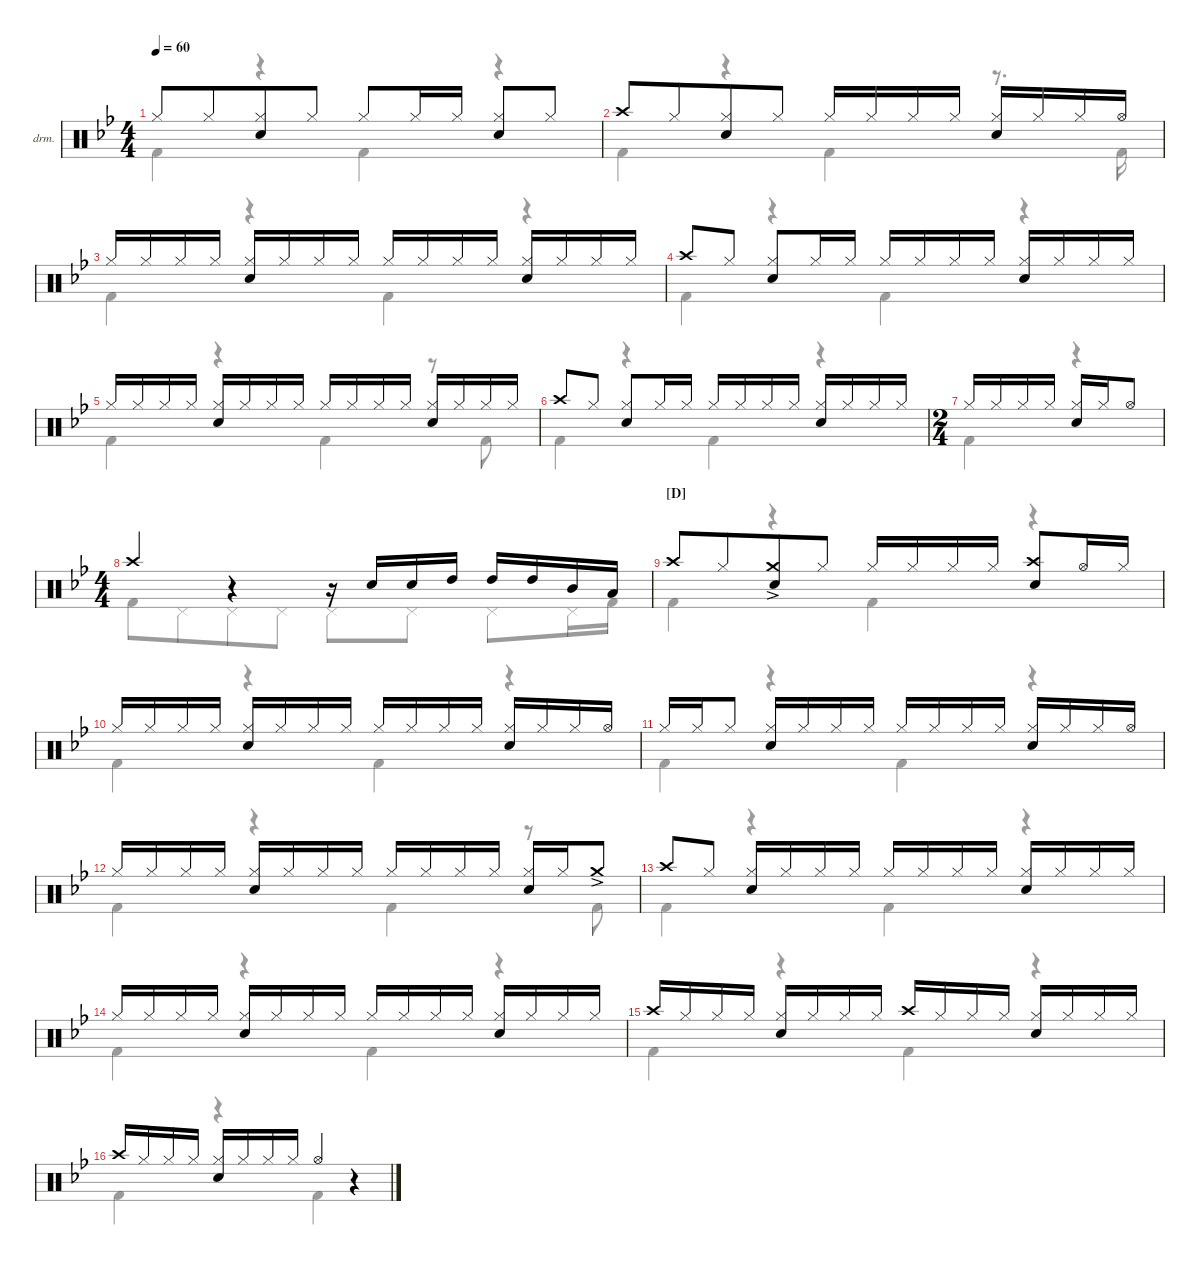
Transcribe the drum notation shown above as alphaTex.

\defaultSystemsLayout 4
\hideDynamics
\bracketExtendMode nobrackets
\firstSystemTrackNameOrientation horizontal
\otherSystemsTrackNameOrientation horizontal
\track ("Drumkit" "drm.") {instrument percussion}
\staff {score}
\articulation defaults
\voice
\ts (4 4)
\tempo 60
\clef neutral
\ks bb "Hi-Hat (closed)"{acc forcenatural}.8{dy mf beam Up} "Hi-Hat (closed)"{acc forcenatural}.8{dy mp beam Up beam merge}
("Hi-Hat (closed)"{acc forcenatural} "Snare (hit) 2"{acc forcenatural}).8{dy mf beam Up} "Hi-Hat (closed)"{acc forcenatural}.8{dy mp beam Up} "Hi-Hat (closed)"{acc forcenatural}.8{dy mf beam Up} "Hi-Hat (closed)"{acc forcenatural}.16{beam Up} "Hi-Hat (closed)"{acc forcenatural}.16{dy mp beam Up} ("Hi-Hat (closed)"{acc forcenatural} "Snare (hit) 2"{acc forcenatural}).8{dy mf beam Up} "Hi-Hat (closed)"{acc forcenatural}.8{beam Up} |
"Crash high (hit)"{acc forcenatural}.8{beam Up} "Hi-Hat (closed)"{acc forcenatural}.8{beam Up beam merge} ("Snare (hit) 2"{acc forcenatural} "Hi-Hat (closed)"{acc forcenatural}).8{beam Up} "Hi-Hat (closed)"{acc forcenatural}.8{beam Up} "Hi-Hat (closed)"{acc forcenatural}.16{beam Up} "Hi-Hat (closed)"{acc forcenatural}.16{dy mp beam Up} "Hi-Hat (closed)"{acc forcenatural}.16{dy mf beam Up} "Hi-Hat (closed)"{acc forcenatural}.16{dy mp beam Up} ("Hi-Hat (closed)"{acc forcenatural} "Snare (hit) 2"{acc forcenatural}).16{dy mf beam Up} "Hi-Hat (closed)"{acc forcenatural}.16{dy mp beam Up} "Hi-Hat (closed)"{acc forcenatural}.16{dy mf beam Up} "Hi-Hat (open)"{acc forcenatural}.16{beam Up} |
"Hi-Hat (closed)"{acc forcenatural}.16{beam Up} "Hi-Hat (closed)"{acc forcenatural}.16{dy mp beam Up} "Hi-Hat (closed)"{acc forcenatural}.16{dy mf beam Up} "Hi-Hat (closed)"{acc forcenatural}.16{dy mp beam Up} ("Hi-Hat (closed)"{acc forcenatural} "Snare (hit) 2"{acc forcenatural}).16{dy mf beam Up} "Hi-Hat (closed)"{acc forcenatural}.16{dy mp beam Up} "Hi-Hat (closed)"{acc forcenatural}.16{dy mf beam Up} "Hi-Hat (closed)"{acc forcenatural}.16{dy mp beam Up} "Hi-Hat (closed)"{acc forcenatural}.16{dy mf beam Up} "Hi-Hat (closed)"{acc forcenatural}.16{dy mp beam Up} "Hi-Hat (closed)"{acc forcenatural}.16{dy mf beam Up} "Hi-Hat (closed)"{acc forcenatural}.16{dy mp beam Up} ("Hi-Hat (closed)"{acc forcenatural} "Snare (hit) 2"{acc forcenatural}).16{dy mf beam Up} "Hi-Hat (closed)"{acc forcenatural}.16{dy mp beam Up} "Hi-Hat (closed)"{acc forcenatural}.16{dy mf beam Up} "Hi-Hat (closed)"{acc forcenatural}.16{dy mp beam Up} |
"Crash high (hit)"{acc forcenatural}.8{beam Up} "Hi-Hat (closed)"{acc forcenatural}.8{dy mf beam Up} ("Hi-Hat (closed)"{acc forcenatural} "Snare (hit) 2"{acc forcenatural}).8{beam Up} "Hi-Hat (closed)"{acc forcenatural}.16{beam Up} "Hi-Hat (closed)"{acc forcenatural}.16{dy mp beam Up} "Hi-Hat (closed)"{acc forcenatural}.16{dy mf beam Up} "Hi-Hat (closed)"{acc forcenatural}.16{dy mp beam Up} "Hi-Hat (closed)"{acc forcenatural}.16{dy mf beam Up} "Hi-Hat (closed)"{acc forcenatural}.16{dy mp beam Up} ("Hi-Hat (closed)"{acc forcenatural} "Snare (hit) 2"{acc forcenatural}).16{dy mf beam Up} "Hi-Hat (closed)"{acc forcenatural}.16{dy mp beam Up} "Hi-Hat (closed)"{acc forcenatural}.16{dy mf beam Up} "Hi-Hat (closed)"{acc forcenatural}.16{dy mp beam Up} |
"Hi-Hat (closed)"{acc forcenatural}.16{dy mf beam Up} "Hi-Hat (closed)"{acc forcenatural}.16{dy mp beam Up} "Hi-Hat (closed)"{acc forcenatural}.16{dy mf beam Up} "Hi-Hat (closed)"{acc forcenatural}.16{dy mp beam Up} ("Hi-Hat (closed)"{acc forcenatural} "Snare (hit) 2"{acc forcenatural}).16{dy mf beam Up} "Hi-Hat (closed)"{acc forcenatural}.16{dy mp beam Up} "Hi-Hat (closed)"{acc forcenatural}.16{dy mf beam Up} "Hi-Hat (closed)"{acc forcenatural}.16{dy mp beam Up} "Hi-Hat (closed)"{acc forcenatural}.16{dy mf beam Up} "Hi-Hat (closed)"{acc forcenatural}.16{dy mp beam Up} "Hi-Hat (closed)"{acc forcenatural}.16{dy mf beam Up} "Hi-Hat (closed)"{acc forcenatural}.16{dy mp beam Up} ("Hi-Hat (closed)"{acc forcenatural} "Snare (hit) 2"{acc forcenatural}).16{dy mf beam Up} "Hi-Hat (closed)"{acc forcenatural}.16{dy mp beam Up} "Hi-Hat (closed)"{acc forcenatural}.16{dy mf beam Up} "Hi-Hat (closed)"{acc forcenatural}.16{dy mp beam Up} |
"Crash high (hit)"{acc forcenatural}.8{beam Up} "Hi-Hat (closed)"{acc forcenatural}.8{dy mf beam Up} ("Hi-Hat (closed)"{acc forcenatural} "Snare (hit) 2"{acc forcenatural}).8{beam Up} "Hi-Hat (closed)"{acc forcenatural}.16{beam Up} "Hi-Hat (closed)"{acc forcenatural}.16{dy mp beam Up} "Hi-Hat (closed)"{acc forcenatural}.16{dy mf beam Up} "Hi-Hat (closed)"{acc forcenatural}.16{dy mp beam Up} "Hi-Hat (closed)"{acc forcenatural}.16{dy mf beam Up} "Hi-Hat (closed)"{acc forcenatural}.16{dy mp beam Up} ("Hi-Hat (closed)"{acc forcenatural} "Snare (hit) 2"{acc forcenatural}).16{dy mf beam Up} "Hi-Hat (closed)"{acc forcenatural}.16{dy mp beam Up} "Hi-Hat (closed)"{acc forcenatural}.16{dy mf beam Up} "Hi-Hat (closed)"{acc forcenatural}.16{dy mp beam Up} |
\ts (2 4)
"Hi-Hat (closed)"{acc forcenatural}.16{dy mf beam Up} "Hi-Hat (closed)"{acc forcenatural}.16{dy mp beam Up} "Hi-Hat (closed)"{acc forcenatural}.16{dy mf beam Up} "Hi-Hat (closed)"{acc forcenatural}.16{dy mp beam Up} ("Hi-Hat (closed)"{acc forcenatural} "Snare (hit) 2"{acc forcenatural}).16{dy mf beam Up} "Hi-Hat (closed)"{acc forcenatural}.16{dy mp beam Up} "Hi-Hat (open)"{acc forcenatural}.8{dy mf beam Up} |
\ts (4 4)
\beaming (8 2 2 2 2)
"Crash high (hit)"{acc forcenatural}.4{beam Up} r.4{beam Up} r.16{beam Up} "Snare (hit) 2"{acc forcenatural}.16{beam Up} "Snare (hit) 2"{acc forcenatural}.16{beam Up} "High Tom (hit)"{acc forcenatural}.16{beam Up} "High Tom (hit)"{acc forcenatural}.16{beam Up} "High Tom (hit)"{acc forcenatural}.16{beam Up} "Mid Tom (hit)"{acc forcenatural}.16{beam Up} "Low Tom (hit)"{acc forcenatural}.16{beam Up} |
\section ("D" "")
"Crash high (hit)"{acc forcenatural}.8{beam Up} "Hi-Hat (closed)"{acc forcenatural}.8{beam Up beam merge} ("Crash medium (hit)"{ac acc forcenatural} "Snare (hit) 2"{acc forcenatural}).8{beam Up} "Hi-Hat (closed)"{acc forcenatural}.8{beam Up} "Hi-Hat (closed)"{acc forcenatural}.16{beam Up} "Hi-Hat (closed)"{acc forcenatural}.16{dy mp beam Up} "Hi-Hat (closed)"{acc forcenatural}.16{dy mf beam Up} "Hi-Hat (closed)"{acc forcenatural}.16{dy mp beam Up} ("Snare (hit) 2"{acc forcenatural} "Crash high (hit)"{acc forcenatural}).8{dy mf beam Up} "Hi-Hat (open)"{acc forcenatural}.16{beam Up} "Hi-Hat (closed)"{acc forcenatural}.16{beam Up} |
"Hi-Hat (closed)"{acc forcenatural}.16{beam Up} "Hi-Hat (closed)"{acc forcenatural}.16{dy mp beam Up} "Hi-Hat (closed)"{acc forcenatural}.16{dy mf beam Up} "Hi-Hat (closed)"{acc forcenatural}.16{dy mp beam Up} ("Hi-Hat (closed)"{acc forcenatural} "Snare (hit) 2"{acc forcenatural}).16{dy mf beam Up} "Hi-Hat (closed)"{acc forcenatural}.16{dy mp beam Up} "Hi-Hat (closed)"{acc forcenatural}.16{dy mf beam Up} "Hi-Hat (closed)"{acc forcenatural}.16{dy mp beam Up} "Hi-Hat (closed)"{acc forcenatural}.16{dy mf beam Up} "Hi-Hat (closed)"{acc forcenatural}.16{dy mp beam Up} "Hi-Hat (closed)"{acc forcenatural}.16{dy mf beam Up} "Hi-Hat (closed)"{acc forcenatural}.16{dy mp beam Up} ("Hi-Hat (closed)"{acc forcenatural} "Snare (hit) 2"{acc forcenatural}).16{dy mf beam Up} "Hi-Hat (closed)"{acc forcenatural}.16{dy mp beam Up} "Hi-Hat (closed)"{acc forcenatural}.16{dy mf beam Up} "Hi-Hat (open)"{acc forcenatural}.16{beam Up} |
"Hi-Hat (closed)"{acc forcenatural}.16{beam Up} "Hi-Hat (closed)"{acc forcenatural}.16{dy mp beam Up} "Hi-Hat (closed)"{acc forcenatural}.8{dy mf beam Up} ("Hi-Hat (closed)"{acc forcenatural} "Snare (hit) 2"{acc forcenatural}).16{beam Up} "Hi-Hat (closed)"{acc forcenatural}.16{dy mp beam Up} "Hi-Hat (closed)"{acc forcenatural}.16{dy mf beam Up} "Hi-Hat (closed)"{acc forcenatural}.16{dy mp beam Up} "Hi-Hat (closed)"{acc forcenatural}.16{dy mf beam Up} "Hi-Hat (closed)"{acc forcenatural}.16{dy mp beam Up} "Hi-Hat (closed)"{acc forcenatural}.16{dy mf beam Up} "Hi-Hat (closed)"{acc forcenatural}.16{dy mp beam Up} ("Hi-Hat (closed)"{acc forcenatural} "Snare (hit) 2"{acc forcenatural}).16{dy mf beam Up} "Hi-Hat (closed)"{acc forcenatural}.16{dy mp beam Up} "Hi-Hat (closed)"{acc forcenatural}.16{dy mf beam Up} "Hi-Hat (open)"{acc forcenatural}.16{beam Up} |
"Hi-Hat (closed)"{acc forcenatural}.16{beam Up} "Hi-Hat (closed)"{acc forcenatural}.16{dy mp beam Up} "Hi-Hat (closed)"{acc forcenatural}.16{dy mf beam Up} "Hi-Hat (closed)"{acc forcenatural}.16{dy mp beam Up} ("Hi-Hat (closed)"{acc forcenatural} "Snare (hit) 2"{acc forcenatural}).16{dy mf beam Up} "Hi-Hat (closed)"{acc forcenatural}.16{dy mp beam Up} "Hi-Hat (closed)"{acc forcenatural}.16{dy mf beam Up} "Hi-Hat (closed)"{acc forcenatural}.16{dy mp beam Up} "Hi-Hat (closed)"{acc forcenatural}.16{dy mf beam Up} "Hi-Hat (closed)"{acc forcenatural}.16{dy mp beam Up} "Hi-Hat (closed)"{acc forcenatural}.16{dy mf beam Up} "Hi-Hat (closed)"{acc forcenatural}.16{dy mp beam Up} ("Hi-Hat (closed)"{acc forcenatural} "Snare (hit) 2"{acc forcenatural}).16{dy mf beam Up} "Hi-Hat (closed)"{acc forcenatural}.16{dy mp beam Up} "Crash medium (hit)"{ac acc forcenatural}.8{dy mf beam Up} |
"Crash high (hit)"{acc forcenatural}.8{beam Up} "Hi-Hat (closed)"{acc forcenatural}.8{beam Up} ("Hi-Hat (closed)"{acc forcenatural} "Snare (hit) 2"{acc forcenatural}).16{beam Up} "Hi-Hat (closed)"{acc forcenatural}.16{dy mp beam Up} "Hi-Hat (closed)"{acc forcenatural}.16{dy mf beam Up} "Hi-Hat (closed)"{acc forcenatural}.16{dy mp beam Up} "Hi-Hat (closed)"{acc forcenatural}.16{dy mf beam Up} "Hi-Hat (closed)"{acc forcenatural}.16{dy mp beam Up} "Hi-Hat (closed)"{acc forcenatural}.16{dy mf beam Up} "Hi-Hat (closed)"{acc forcenatural}.16{dy mp beam Up} ("Hi-Hat (closed)"{acc forcenatural} "Snare (hit) 2"{acc forcenatural}).16{dy mf beam Up} "Hi-Hat (closed)"{acc forcenatural}.16{dy mp beam Up} "Hi-Hat (closed)"{acc forcenatural}.16{dy mf beam Up} "Hi-Hat (closed)"{acc forcenatural}.16{dy mp beam Up} |
"Hi-Hat (closed)"{acc forcenatural}.16{dy mf beam Up} "Hi-Hat (closed)"{acc forcenatural}.16{dy mp beam Up} "Hi-Hat (closed)"{acc forcenatural}.16{dy mf beam Up} "Hi-Hat (closed)"{acc forcenatural}.16{dy mp beam Up} ("Hi-Hat (closed)"{acc forcenatural} "Snare (hit) 2"{acc forcenatural}).16{dy mf beam Up} "Hi-Hat (closed)"{acc forcenatural}.16{dy mp beam Up} "Hi-Hat (closed)"{acc forcenatural}.16{dy mf beam Up} "Hi-Hat (closed)"{acc forcenatural}.16{dy mp beam Up} "Hi-Hat (closed)"{acc forcenatural}.16{dy mf beam Up} "Hi-Hat (closed)"{acc forcenatural}.16{dy mp beam Up} "Hi-Hat (closed)"{acc forcenatural}.16{dy mf beam Up} "Hi-Hat (closed)"{acc forcenatural}.16{dy mp beam Up} ("Hi-Hat (closed)"{acc forcenatural} "Snare (hit) 2"{acc forcenatural}).16{dy mf beam Up} "Hi-Hat (closed)"{acc forcenatural}.16{dy mp beam Up} "Hi-Hat (closed)"{acc forcenatural}.16{dy mf beam Up} "Hi-Hat (closed)"{acc forcenatural}.16{dy mp beam Up} |
"Crash high (hit)"{acc forcenatural}.16{dy mf beam Up} "Hi-Hat (closed)"{acc forcenatural}.16{dy mp beam Up} "Hi-Hat (closed)"{acc forcenatural}.16{dy mf beam Up} "Hi-Hat (closed)"{acc forcenatural}.16{dy mp beam Up} ("Hi-Hat (closed)"{acc forcenatural} "Snare (hit) 2"{acc forcenatural}).16{dy mf beam Up} "Hi-Hat (closed)"{acc forcenatural}.16{dy mp beam Up} "Hi-Hat (closed)"{acc forcenatural}.16{dy mf beam Up} "Hi-Hat (closed)"{acc forcenatural}.16{dy mp beam Up} "Crash high (hit)"{acc forcenatural}.16{dy mf beam Up} "Hi-Hat (closed)"{acc forcenatural}.16{dy mp beam Up} "Hi-Hat (closed)"{acc forcenatural}.16{dy mf beam Up} "Hi-Hat (closed)"{acc forcenatural}.16{dy mp beam Up} ("Hi-Hat (closed)"{acc forcenatural} "Snare (hit) 2"{acc forcenatural}).16{dy mf beam Up} "Hi-Hat (closed)"{acc forcenatural}.16{dy mp beam Up} "Hi-Hat (closed)"{acc forcenatural}.16{dy mf beam Up} "Hi-Hat (closed)"{acc forcenatural}.16{dy mp beam Up} |
"Crash high (hit)"{acc forcenatural}.16{dy mf beam Up} "Hi-Hat (closed)"{acc forcenatural}.16{dy mp beam Up} "Hi-Hat (closed)"{acc forcenatural}.16{dy mf beam Up} "Hi-Hat (closed)"{acc forcenatural}.16{dy mp beam Up} ("Hi-Hat (closed)"{acc forcenatural} "Snare (hit) 2"{acc forcenatural}).16{dy mf beam Up} "Hi-Hat (closed)"{acc forcenatural}.16{dy mp beam Up} "Hi-Hat (closed)"{acc forcenatural}.16{dy mf beam Up} "Hi-Hat (closed)"{acc forcenatural}.16{dy mp beam Up} "Hi-Hat (open)"{acc forcenatural}.4{dy mf beam Up} r.4{beam Up}
\voice
\clef neutral
\ottava regular
\simile none
\ks bb "Kick (hit) 2"{acc forcenatural}.4{dy mf beam Down}
r.4{beam Down} "Kick (hit) 2"{acc forcenatural}.4{beam Down} r.4{beam Down} |
"Kick (hit) 2"{acc forcenatural}.4{beam Down} r.4{beam Down} "Kick (hit) 2"{acc forcenatural}.4{beam Down} r.8{d beam Down} "Kick (hit) 2"{acc forcenatural}.16{beam Down} |
"Kick (hit) 2"{acc forcenatural}.4{beam Down} r.4{beam Down} "Kick (hit) 2"{acc forcenatural}.4{beam Down} r.4{beam Down} |
"Kick (hit) 2"{acc forcenatural}.4{beam Down} r.4{beam Down} "Kick (hit) 2"{acc forcenatural}.4{beam Down} r.4{beam Down} |
"Kick (hit) 2"{acc forcenatural}.4{beam Down} r.4{beam Down} "Kick (hit) 2"{acc forcenatural}.4{beam Down} r.8{beam Down} "Kick (hit) 2"{acc forcenatural}.8{beam Down} |
"Kick (hit) 2"{acc forcenatural}.4{beam Down} r.4{beam Down} "Kick (hit) 2"{acc forcenatural}.4{beam Down} r.4{beam Down} |
"Kick (hit) 2"{acc forcenatural}.4{beam Down} r.4{beam Down} |
"Kick (hit) 2"{acc forcenatural}.8{beam Down} "Pedal Hi-Hat (hit)"{acc forcenatural}.8{beam Down beam merge} "Pedal Hi-Hat (hit)"{acc forcenatural}.8{beam Down} "Pedal Hi-Hat (hit)"{acc forcenatural}.8{beam Down} "Pedal Hi-Hat (hit)"{acc forcenatural}.8{beam Down} "Pedal Hi-Hat (hit)"{acc forcenatural}.8{beam Down} "Pedal Hi-Hat (hit)"{acc forcenatural}.8{beam Down} "Pedal Hi-Hat (hit)"{acc forcenatural}.16{beam Down} "Kick (hit) 2"{acc forcenatural}.16{beam Down} |
"Kick (hit) 2"{acc forcenatural}.4{beam Down} r.4{beam Down} "Kick (hit) 2"{acc forcenatural}.4{beam Down} r.4{beam Down} |
"Kick (hit) 2"{acc forcenatural}.4{beam Down} r.4{beam Down} "Kick (hit) 2"{acc forcenatural}.4{beam Down} r.4{beam Down} |
"Kick (hit) 2"{acc forcenatural}.4{beam Down} r.4{beam Down} "Kick (hit) 2"{acc forcenatural}.4{beam Down} r.4{beam Down} |
"Kick (hit) 2"{acc forcenatural}.4{beam Down} r.4{beam Down} "Kick (hit) 2"{acc forcenatural}.4{beam Down} r.8{beam Down} "Kick (hit) 2"{acc forcenatural}.8{beam Down} |
"Kick (hit) 2"{acc forcenatural}.4{beam Down} r.4{beam Down} "Kick (hit) 2"{acc forcenatural}.4{beam Down} r.4{beam Down} |
"Kick (hit) 2"{acc forcenatural}.4{beam Down} r.4{beam Down} "Kick (hit) 2"{acc forcenatural}.4{beam Down} r.4{beam Down} |
"Kick (hit) 2"{acc forcenatural}.4{beam Down} r.4{beam Down} "Kick (hit) 2"{acc forcenatural}.4{beam Down} r.4{beam Down} |
"Kick (hit) 2"{acc forcenatural}.4{beam Down} r.4{beam Down} "Kick (hit) 2"{acc forcenatural}.4{beam Down} r.4{beam Down}
